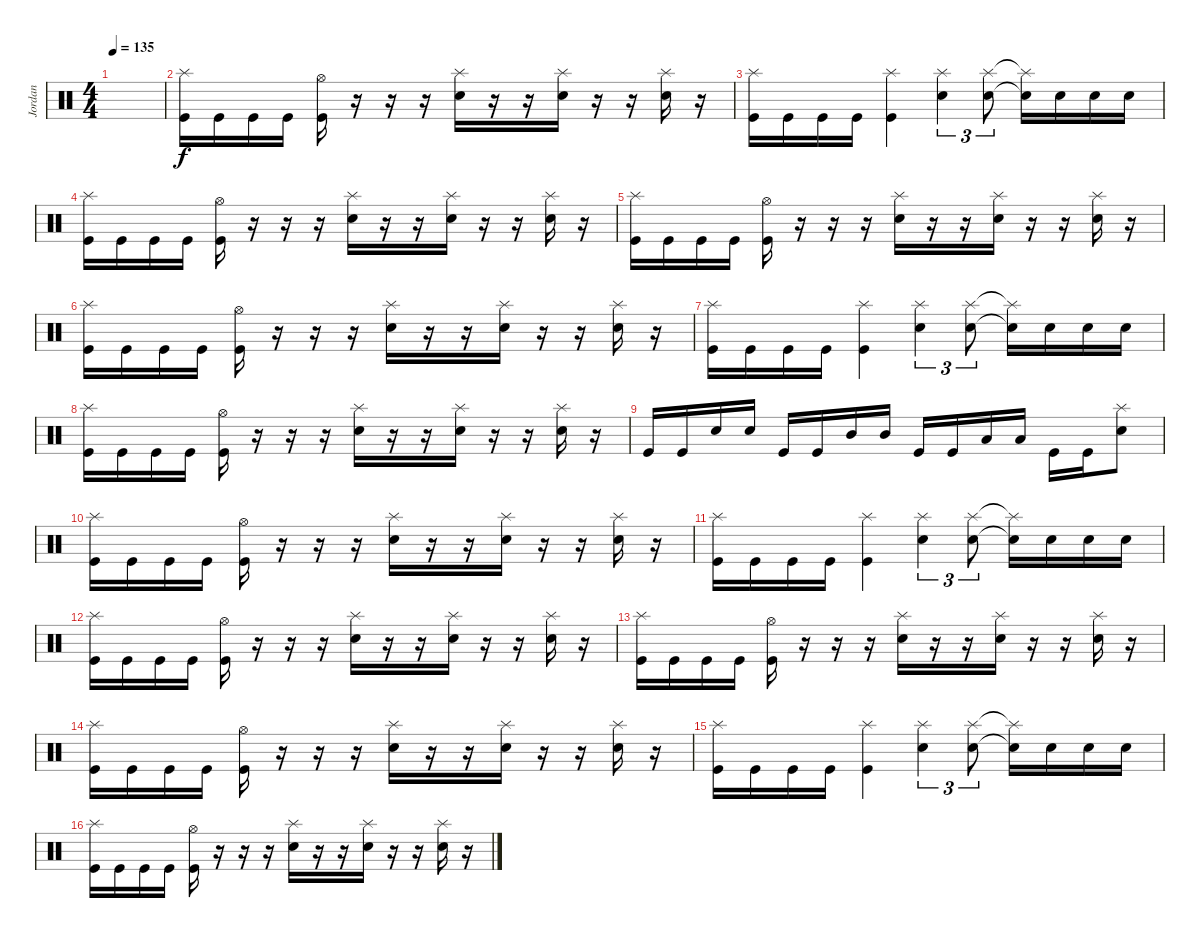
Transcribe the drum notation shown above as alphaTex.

\track ("Jordan" "Jordan") {instrument percussion}
\staff {score}
\articulation defaults
\ts (4 4)
\tempo 135
\clef neutral
\ks c
|
("Kick (hit)" "Splash (hit)").16 "Kick (hit)".16 "Kick (hit)".16 "Kick (hit)".16 ("Kick (hit)" "Hi-Hat (open)").16 r.16 r.16 r.16 ("Snare (hit) 2" "Splash (hit)").16 r.16 r.16 ("Snare (hit) 2" "Splash (hit)").16 r.16 r.16 ("Snare (hit) 2" "Splash (hit)").16 r.16 |
("Kick (hit)" "Splash (hit)").16 "Kick (hit)".16 "Kick (hit)".16 "Kick (hit)".16 ("Kick (hit)" "Splash (hit)").4 ("Snare (hit) 2" "Splash (hit)").4{tu (3 2)} ("Snare (hit) 2" "Splash (hit)").8{tu (3 2)} ("Snare (hit) 2"{t} "Splash (hit)"{t}).16 "Snare (hit) 2".16 "Snare (hit) 2".16 "Snare (hit) 2".16 |
("Kick (hit)" "Splash (hit)").16 "Kick (hit)".16 "Kick (hit)".16 "Kick (hit)".16 ("Kick (hit)" "Hi-Hat (open)").16 r.16 r.16 r.16 ("Snare (hit) 2" "Splash (hit)").16 r.16 r.16 ("Snare (hit) 2" "Splash (hit)").16 r.16 r.16 ("Snare (hit) 2" "Splash (hit)").16 r.16 |
("Kick (hit)" "Splash (hit)").16 "Kick (hit)".16 "Kick (hit)".16 "Kick (hit)".16 ("Kick (hit)" "Hi-Hat (open)").16 r.16 r.16 r.16 ("Snare (hit) 2" "Splash (hit)").16 r.16 r.16 ("Snare (hit) 2" "Splash (hit)").16 r.16 r.16 ("Snare (hit) 2" "Splash (hit)").16 r.16 |
("Kick (hit)" "Splash (hit)").16 "Kick (hit)".16 "Kick (hit)".16 "Kick (hit)".16 ("Kick (hit)" "Hi-Hat (open)").16 r.16 r.16 r.16 ("Snare (hit) 2" "Splash (hit)").16 r.16 r.16 ("Snare (hit) 2" "Splash (hit)").16 r.16 r.16 ("Snare (hit) 2" "Splash (hit)").16 r.16 |
("Kick (hit)" "Splash (hit)").16 "Kick (hit)".16 "Kick (hit)".16 "Kick (hit)".16 ("Kick (hit)" "Splash (hit)").4 ("Snare (hit) 2" "Splash (hit)").4{tu (3 2)} ("Snare (hit) 2" "Splash (hit)").8{tu (3 2)} ("Snare (hit) 2"{t} "Splash (hit)"{t}).16 "Snare (hit) 2".16 "Snare (hit) 2".16 "Snare (hit) 2".16 |
("Kick (hit)" "Splash (hit)").16 "Kick (hit)".16 "Kick (hit)".16 "Kick (hit)".16 ("Kick (hit)" "Hi-Hat (open)").16 r.16 r.16 r.16 ("Snare (hit) 2" "Splash (hit)").16 r.16 r.16 ("Snare (hit) 2" "Splash (hit)").16 r.16 r.16 ("Snare (hit) 2" "Splash (hit)").16 r.16 |
"Kick (hit)".16 "Kick (hit)".16 "Snare (hit) 2".16 "Snare (hit) 2".16 "Kick (hit)".16 "Kick (hit)".16 "Mid Tom (hit)".16 "Mid Tom (hit)".16 "Kick (hit)".16 "Kick (hit)".16 "Low Tom (hit)".16 "Low Tom (hit)".16 "Kick (hit)".16 "Kick (hit)".16 ("Splash (hit)" "Snare (hit) 2").8 |
("Kick (hit)" "Splash (hit)").16 "Kick (hit)".16 "Kick (hit)".16 "Kick (hit)".16 ("Kick (hit)" "Hi-Hat (open)").16 r.16 r.16 r.16 ("Snare (hit) 2" "Splash (hit)").16 r.16 r.16 ("Snare (hit) 2" "Splash (hit)").16 r.16 r.16 ("Snare (hit) 2" "Splash (hit)").16 r.16 |
("Kick (hit)" "Splash (hit)").16 "Kick (hit)".16 "Kick (hit)".16 "Kick (hit)".16 ("Kick (hit)" "Splash (hit)").4 ("Snare (hit) 2" "Splash (hit)").4{tu (3 2)} ("Snare (hit) 2" "Splash (hit)").8{tu (3 2)} ("Snare (hit) 2"{t} "Splash (hit)"{t}).16 "Snare (hit) 2".16 "Snare (hit) 2".16 "Snare (hit) 2".16 |
("Kick (hit)" "Splash (hit)").16 "Kick (hit)".16 "Kick (hit)".16 "Kick (hit)".16 ("Kick (hit)" "Hi-Hat (open)").16 r.16 r.16 r.16 ("Snare (hit) 2" "Splash (hit)").16 r.16 r.16 ("Snare (hit) 2" "Splash (hit)").16 r.16 r.16 ("Snare (hit) 2" "Splash (hit)").16 r.16 |
("Kick (hit)" "Splash (hit)").16 "Kick (hit)".16 "Kick (hit)".16 "Kick (hit)".16 ("Kick (hit)" "Hi-Hat (open)").16 r.16 r.16 r.16 ("Snare (hit) 2" "Splash (hit)").16 r.16 r.16 ("Snare (hit) 2" "Splash (hit)").16 r.16 r.16 ("Snare (hit) 2" "Splash (hit)").16 r.16 |
("Kick (hit)" "Splash (hit)").16 "Kick (hit)".16 "Kick (hit)".16 "Kick (hit)".16 ("Kick (hit)" "Hi-Hat (open)").16 r.16 r.16 r.16 ("Snare (hit) 2" "Splash (hit)").16 r.16 r.16 ("Snare (hit) 2" "Splash (hit)").16 r.16 r.16 ("Snare (hit) 2" "Splash (hit)").16 r.16 |
("Kick (hit)" "Splash (hit)").16 "Kick (hit)".16 "Kick (hit)".16 "Kick (hit)".16 ("Kick (hit)" "Splash (hit)").4 ("Snare (hit) 2" "Splash (hit)").4{tu (3 2)} ("Snare (hit) 2" "Splash (hit)").8{tu (3 2)} ("Snare (hit) 2"{t} "Splash (hit)"{t}).16 "Snare (hit) 2".16 "Snare (hit) 2".16 "Snare (hit) 2".16 |
("Kick (hit)" "Splash (hit)").16 "Kick (hit)".16 "Kick (hit)".16 "Kick (hit)".16 ("Kick (hit)" "Hi-Hat (open)").16 r.16 r.16 r.16 ("Snare (hit) 2" "Splash (hit)").16 r.16 r.16 ("Snare (hit) 2" "Splash (hit)").16 r.16 r.16 ("Snare (hit) 2" "Splash (hit)").16 r.16
